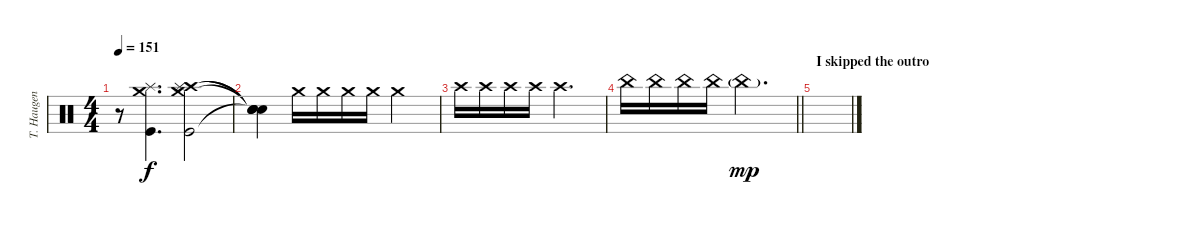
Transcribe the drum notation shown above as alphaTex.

\track ("T. Haugen" "T. Haugen") {instrument percussion}
\staff {score}
\articulation defaults
\ts (4 4)
\tempo 151
\clef neutral
\ks c
r.8{dy f} ("Crash medium (hit)" "Splash (hit)" "Kick (hit)").4{d} ("Crash high (hit)" "Crash medium (hit)" "Splash (hit)" "Kick (hit)").2 |
("Snare (hit)"{t} "Snare (hit)"{t} "Snare (hit)"{t} "Snare (hit)"{t}).4{volume 0} "Crash medium (hit)".16{volume 5} "Crash medium (hit)".16{volume 16} "Crash medium (hit)".16 "Crash medium (hit)".16 "Crash medium (hit)".2 |
"Crash high (hit)".16{volume 5} "Crash high (hit)".16{volume 16} "Crash high (hit)".16 "Crash high (hit)".16 "Crash high (hit)".2{d} |
\barLineRight lightlight "China (hit)".16{volume 5} "China (hit)".16{volume 16} "China (hit)".16 "China (hit)".16 "China (hit)"{g}.2{d dy mp}
|
\section ("" "I skipped the outro")
